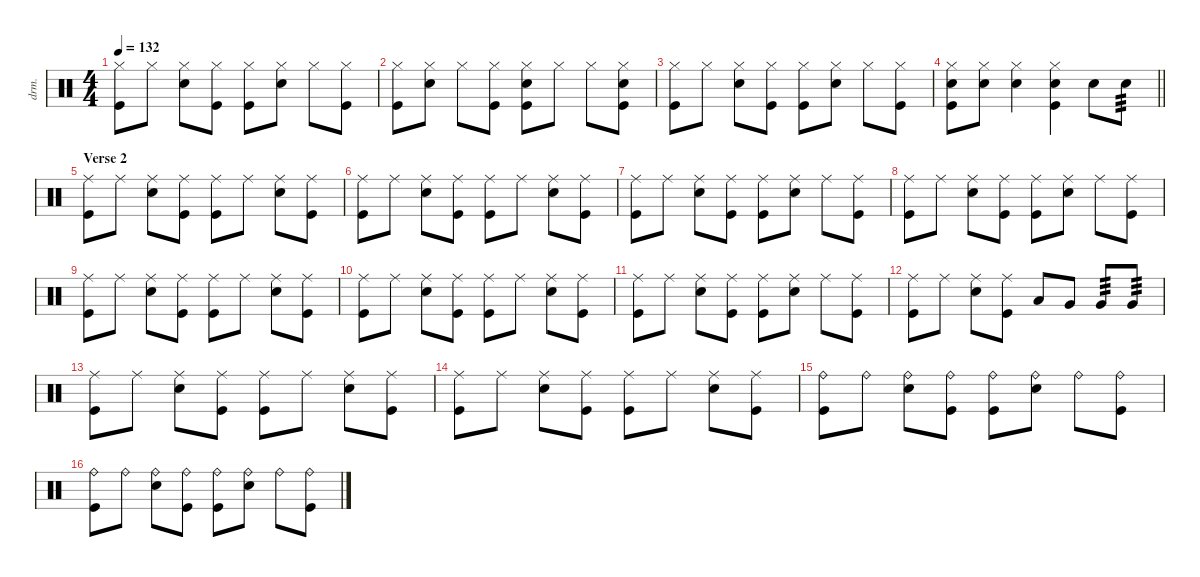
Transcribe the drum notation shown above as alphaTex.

\defaultSystemsLayout 4
\hideDynamics
\bracketExtendMode nobrackets
\otherSystemsTrackNameOrientation horizontal
\track ("Drums" "drm.") {instrument percussion}
\staff {score}
\articulation defaults
\ts (4 4)
\tempo 132
\clef neutral
\ks c
("Hi-Hat (closed)" "Kick (hit)").8{dy f beam Down} "Hi-Hat (closed)".8{beam Down} ("Hi-Hat (closed)" "Snare (hit) 2").8{beam Down} ("Hi-Hat (closed)" "Kick (hit)").8{beam Down} ("Hi-Hat (closed)" "Kick (hit)").8{beam Down} ("Hi-Hat (closed)" "Snare (hit) 2").8{beam Down} "Hi-Hat (closed)".8{beam Down} ("Hi-Hat (closed)" "Kick (hit)").8{beam Down} |
("Hi-Hat (closed)" "Kick (hit)").8{beam Down} ("Hi-Hat (closed)" "Snare (hit) 2").8{beam Down} "Hi-Hat (closed)".8{beam Down} ("Hi-Hat (closed)" "Kick (hit)").8{beam Down} ("Hi-Hat (closed)" "Snare (hit) 2" "Kick (hit)").8{beam Down} "Hi-Hat (closed)".8{beam Down} "Hi-Hat (closed)".8{beam Down} ("Hi-Hat (closed)" "Snare (hit) 2" "Kick (hit)").8{beam Down} |
("Hi-Hat (closed)" "Kick (hit)").8{beam Down} "Hi-Hat (closed)".8{beam Down} ("Hi-Hat (closed)" "Snare (hit) 2").8{beam Down} ("Hi-Hat (closed)" "Kick (hit)").8{beam Down} ("Hi-Hat (closed)" "Kick (hit)").8{beam Down} ("Hi-Hat (closed)" "Snare (hit) 2").8{beam Down} "Hi-Hat (closed)".8{beam Down} ("Hi-Hat (closed)" "Kick (hit)").8{beam Down} |
\barLineRight lightlight
("Hi-Hat (closed)" "Snare (hit) 2" "Kick (hit)").8{beam Down} ("Hi-Hat (closed)" "Snare (hit) 2").8{beam Down} ("Hi-Hat (closed)" "Snare (hit) 2").4{beam Down} ("Hi-Hat (closed)" "Snare (hit) 2" "Kick (hit)").4{beam Down} "Snare (hit) 2".8{beam Down} "Snare (hit) 2".8{tp 3 beam Down} |
\section ("" "Verse 2")
("Ride (middle)" "Kick (hit)").8{beam Down} "Ride (middle)".8{beam Down} ("Ride (middle)" "Snare (hit) 2").8{beam Down} ("Ride (middle)" "Kick (hit)").8{beam Down} ("Ride (middle)" "Kick (hit)").8{beam Down} "Ride (middle)".8{beam Down} ("Ride (middle)" "Snare (hit) 2").8{beam Down} ("Ride (middle)" "Kick (hit)").8{beam Down} |
("Ride (middle)" "Kick (hit)").8{beam Down} "Ride (middle)".8{beam Down} ("Ride (middle)" "Snare (hit) 2").8{beam Down} ("Ride (middle)" "Kick (hit)").8{beam Down} ("Ride (middle)" "Kick (hit)").8{beam Down} "Ride (middle)".8{beam Down} ("Ride (middle)" "Snare (hit) 2").8{beam Down} ("Ride (middle)" "Kick (hit)").8{beam Down} |
("Ride (middle)" "Kick (hit)").8{beam Down} "Ride (middle)".8{beam Down} ("Ride (middle)" "Snare (hit) 2").8{beam Down} ("Ride (middle)" "Kick (hit)").8{beam Down} ("Ride (middle)" "Kick (hit)").8{beam Down} ("Ride (middle)" "Snare (hit) 2").8{beam Down} "Ride (middle)".8{beam Down} ("Ride (middle)" "Kick (hit)").8{beam Down} |
("Ride (middle)" "Kick (hit)").8{beam Down} "Ride (middle)".8{beam Down} ("Ride (middle)" "Snare (hit) 2").8{beam Down} ("Ride (middle)" "Kick (hit)").8{beam Down} ("Ride (middle)" "Kick (hit)").8{beam Down} ("Ride (middle)" "Snare (hit) 2").8{beam Down} "Ride (middle)".8{beam Down} ("Ride (middle)" "Kick (hit)").8{beam Down} |
("Ride (middle)" "Kick (hit)").8{beam Down} "Ride (middle)".8{beam Down} ("Ride (middle)" "Snare (hit) 2").8{beam Down} ("Ride (middle)" "Kick (hit)").8{beam Down} ("Ride (middle)" "Kick (hit)").8{beam Down} "Ride (middle)".8{beam Down} ("Ride (middle)" "Snare (hit) 2").8{beam Down} ("Ride (middle)" "Kick (hit)").8{beam Down} |
("Ride (middle)" "Kick (hit)").8{beam Down} "Ride (middle)".8{beam Down} ("Ride (middle)" "Snare (hit) 2").8{beam Down} ("Ride (middle)" "Kick (hit)").8{beam Down} ("Ride (middle)" "Kick (hit)").8{beam Down} "Ride (middle)".8{beam Down} ("Ride (middle)" "Snare (hit) 2").8{beam Down} ("Ride (middle)" "Kick (hit)").8{beam Down} |
("Ride (middle)" "Kick (hit)").8{beam Down} "Ride (middle)".8{beam Down} ("Ride (middle)" "Snare (hit) 2").8{beam Down} ("Ride (middle)" "Kick (hit)").8{beam Down} ("Ride (middle)" "Kick (hit)").8{beam Down} ("Ride (middle)" "Snare (hit) 2").8{beam Down} "Ride (middle)".8{beam Down} ("Ride (middle)" "Kick (hit)").8{beam Down} |
("Ride (middle)" "Kick (hit)").8{beam Down} "Ride (middle)".8{beam Down} ("Ride (middle)" "Snare (hit) 2").8{beam Down} ("Ride (middle)" "Kick (hit)").8{beam Down} "Low Tom (hit)".8{beam Up} "Very Low Tom (hit)".8{beam Up} "Very Low Tom (hit)".8{tp 3 beam Up} "Very Low Tom (hit)".8{tp 3 beam Up} |
("Ride (middle)" "Kick (hit)").8{beam Down} "Ride (middle)".8{beam Down} ("Ride (middle)" "Snare (hit) 2").8{beam Down} ("Ride (middle)" "Kick (hit)").8{beam Down} ("Ride (middle)" "Kick (hit)").8{beam Down} "Ride (middle)".8{beam Down} ("Ride (middle)" "Snare (hit) 2").8{beam Down} ("Ride (middle)" "Kick (hit)").8{beam Down} |
("Ride (middle)" "Kick (hit)").8{beam Down} "Ride (middle)".8{beam Down} ("Ride (middle)" "Snare (hit) 2").8{beam Down} ("Ride (middle)" "Kick (hit)").8{beam Down} ("Ride (middle)" "Kick (hit)").8{beam Down} "Ride (middle)".8{beam Down} ("Ride (middle)" "Snare (hit) 2").8{beam Down} ("Ride (middle)" "Kick (hit)").8{beam Down} |
("Ride (bell)" "Kick (hit)").8{beam Down} "Ride (bell)".8{beam Down} ("Ride (bell)" "Snare (hit) 2").8{beam Down} ("Ride (bell)" "Kick (hit)").8{beam Down} ("Ride (bell)" "Kick (hit)").8{beam Down} ("Ride (bell)" "Snare (hit) 2").8{beam Down} "Ride (bell)".8{beam Down} ("Ride (bell)" "Kick (hit)").8{beam Down} |
("Ride (bell)" "Kick (hit)").8{beam Down} "Ride (bell)".8{beam Down} ("Ride (bell)" "Snare (hit) 2").8{beam Down} ("Ride (bell)" "Kick (hit)").8{beam Down} ("Ride (bell)" "Kick (hit)").8{beam Down} ("Ride (bell)" "Snare (hit) 2").8{beam Down} "Ride (bell)".8{beam Down} ("Ride (bell)" "Kick (hit)").8{beam Down}
